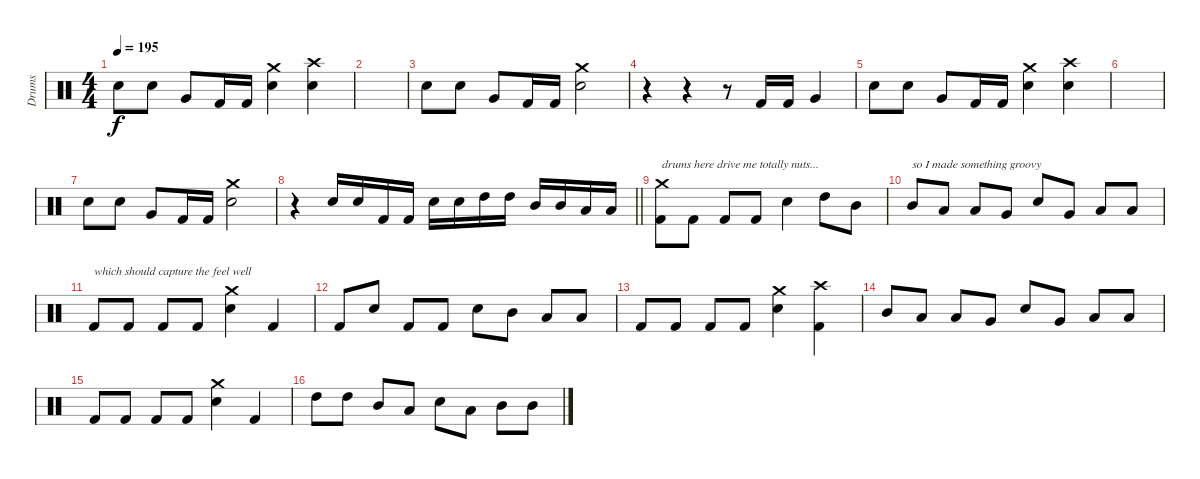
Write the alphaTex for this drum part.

\track ("Drums" "Drums") {instrument percussion}
\staff {score}
\articulation defaults
\ts (4 4)
\tempo 195
\clef neutral
\ks c "Electric Snare (hit)".8{dy f} "Electric Snare (hit)".8 "Very Low Tom (hit)".8 "Kick (hit) 2".16 "Kick (hit) 2".16
("Crash medium (hit)" "Electric Snare (hit)").4 ("Crash high (hit)" "Electric Snare (hit)").4 |
|
"Electric Snare (hit)".8 "Electric Snare (hit)".8 "Very Low Tom (hit)".8 "Kick (hit) 2".16 "Kick (hit) 2".16 ("Crash medium (hit)" "Electric Snare (hit)").2 |
r.4 r.4 r.8 "Kick (hit) 2".16 "Kick (hit) 2".16 "Very Low Tom (hit)".4 |
"Electric Snare (hit)".8 "Electric Snare (hit)".8 "Very Low Tom (hit)".8 "Kick (hit) 2".16 "Kick (hit) 2".16 ("Crash medium (hit)" "Electric Snare (hit)").4 ("Crash high (hit)" "Electric Snare (hit)").4 |
|
"Electric Snare (hit)".8 "Electric Snare (hit)".8 "Very Low Tom (hit)".8 "Kick (hit) 2".16 "Kick (hit) 2".16 ("Crash medium (hit)" "Electric Snare (hit)").2 |
\barLineRight lightlight
r.4 "Electric Snare (hit)".16 "Electric Snare (hit)".16 "Kick (hit) 2".16 "Kick (hit) 2".16 "Electric Snare (hit)".16 "Electric Snare (hit)".16 "High Tom (hit)".16 "High Tom (hit)".16 "Mid Tom (hit)".16 "Mid Tom (hit)".16 "Low Tom (hit)".16 "Low Tom (hit)".16 |
\section ("" "")
("Crash medium (hit)" "Kick (hit) 2").8{txt "drums here drive me totally nuts..."} "Kick (hit) 2".8 "Kick (hit) 2".8 "Kick (hit) 2".8 "Electric Snare (hit)".4 "High Tom (hit)".8 "Mid Tom (hit)".8 |
"Mid Tom (hit)".8{txt "so I made something groovy"} "Low Tom (hit)".8 "Low Tom (hit)".8 "Very Low Tom (hit)".8 "Electric Snare (hit)".8 "Very Low Tom (hit)".8 "Low Tom (hit)".8 "Low Tom (hit)".8 |
"Kick (hit) 2".8{txt "which should capture the feel well"} "Kick (hit) 2".8 "Kick (hit) 2".8 "Kick (hit) 2".8 ("Crash medium (hit)" "Electric Snare (hit)").4 "Kick (hit) 2".4 |
"Kick (hit) 2".8 "Electric Snare (hit)".8 "Kick (hit) 2".8 "Kick (hit) 2".8 "Electric Snare (hit)".8 "Mid Tom (hit)".8 "Low Tom (hit)".8 "Low Tom (hit)".8 |
"Kick (hit) 2".8 "Kick (hit) 2".8 "Kick (hit) 2".8 "Kick (hit) 2".8 ("Crash medium (hit)" "Electric Snare (hit)").4 ("Crash high (hit)" "Kick (hit) 2").4 |
"Mid Tom (hit)".8 "Low Tom (hit)".8 "Low Tom (hit)".8 "Very Low Tom (hit)".8 "Electric Snare (hit)".8 "Very Low Tom (hit)".8 "Low Tom (hit)".8 "Low Tom (hit)".8 |
"Kick (hit) 2".8 "Kick (hit) 2".8 "Kick (hit) 2".8 "Kick (hit) 2".8 ("Crash medium (hit)" "Electric Snare (hit)").4 "Kick (hit) 2".4 |
"High Tom (hit)".8 "High Tom (hit)".8 "Mid Tom (hit)".8 "Low Tom (hit)".8 "Electric Snare (hit)".8 "Low Tom (hit)".8 "Mid Tom (hit)".8 "Mid Tom (hit)".8
